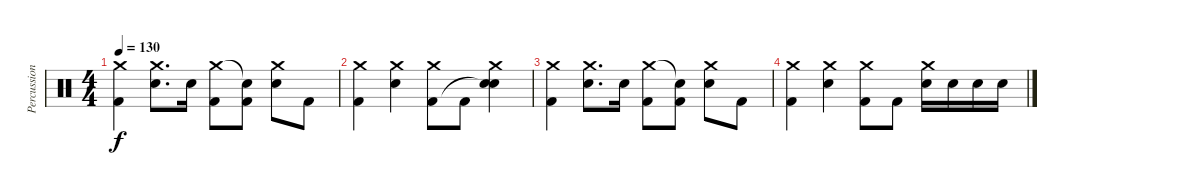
\track ("Percussion" "Percussion") {instrument percussion}
\staff {score}
\articulation defaults
\ts (4 4)
\tempo 130
\clef neutral
\ks c
("Crash medium (hit)" "Kick (hit) 2").4{dy f} ("Crash medium (hit)" "Snare (hit) 2").8{d} "Snare (hit) 2".16 ("Crash medium (hit)" "Kick (hit) 2").8 ("Snare (hit)"{t} "Kick (hit) 2").8 ("Crash medium (hit)" "Snare (hit) 2").8 "Kick (hit) 2".8 |
("Crash medium (hit)" "Kick (hit) 2").4 ("Crash medium (hit)" "Snare (hit) 2").4 ("Crash medium (hit)" "Kick (hit) 2").8 "Kick (hit) 2".8 ("Crash medium (hit)" "Snare (hit)"{t} "Snare (hit) 2").4 |
("Crash medium (hit)" "Kick (hit) 2").4 ("Crash medium (hit)" "Snare (hit) 2").8{d} "Snare (hit) 2".16 ("Crash medium (hit)" "Kick (hit) 2").8 ("Snare (hit)"{t} "Kick (hit) 2").8 ("Crash medium (hit)" "Snare (hit) 2").8 "Kick (hit) 2".8 |
("Crash medium (hit)" "Kick (hit) 2").4 ("Crash medium (hit)" "Snare (hit) 2").4 ("Crash medium (hit)" "Kick (hit) 2").8 "Kick (hit) 2".8 ("Crash medium (hit)" "Snare (hit) 2").16 "Snare (hit) 2".16 "Snare (hit) 2".16 "Snare (hit) 2".16
